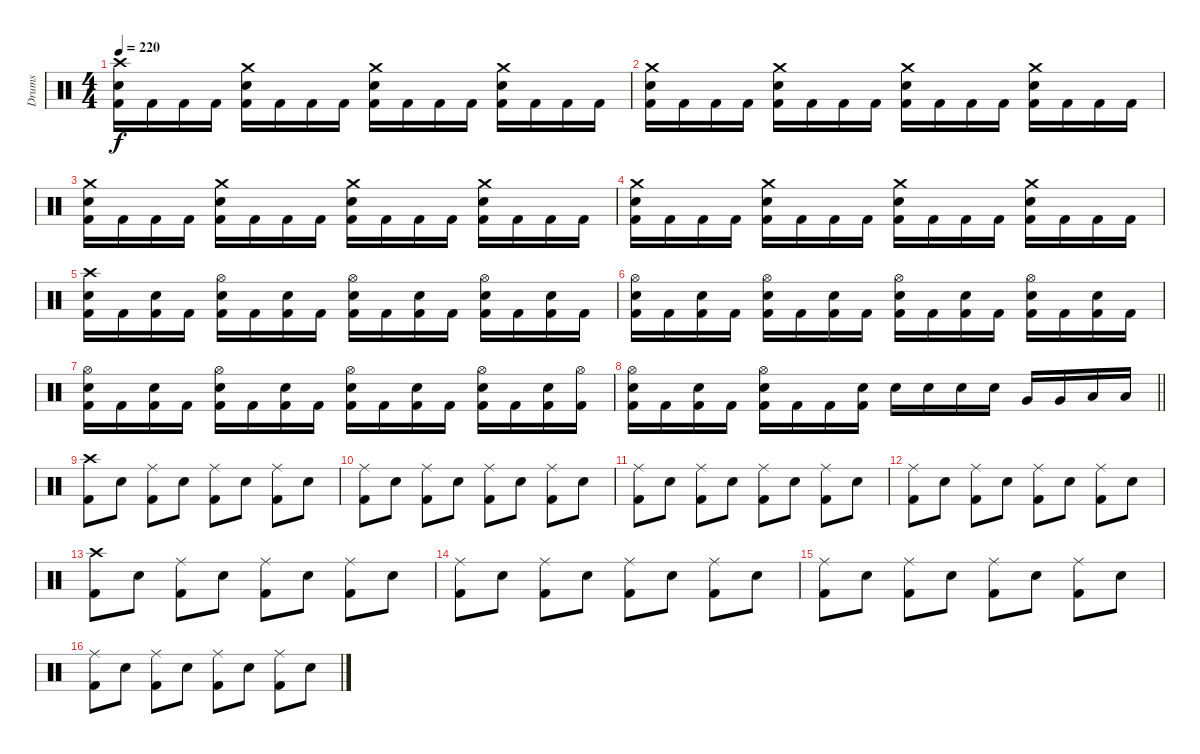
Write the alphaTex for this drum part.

\track ("Drums" "Drums") {instrument percussion}
\staff {score}
\articulation defaults
\ts (4 4)
\tempo 220
\clef neutral
\ks c
("Crash high (hit)" "Electric Snare (hit)" "Kick (hit) 2").16{dy f} "Kick (hit) 2".16 "Kick (hit) 2".16 "Kick (hit) 2".16 ("Crash medium (hit)" "Electric Snare (hit)" "Kick (hit) 2").16 "Kick (hit) 2".16 "Kick (hit) 2".16 "Kick (hit) 2".16 ("Crash medium (hit)" "Electric Snare (hit)" "Kick (hit) 2").16 "Kick (hit) 2".16 "Kick (hit) 2".16 "Kick (hit) 2".16 ("Crash medium (hit)" "Electric Snare (hit)" "Kick (hit) 2").16 "Kick (hit) 2".16 "Kick (hit) 2".16 "Kick (hit) 2".16 |
("Crash medium (hit)" "Electric Snare (hit)" "Kick (hit) 2").16 "Kick (hit) 2".16 "Kick (hit) 2".16 "Kick (hit) 2".16 ("Crash medium (hit)" "Electric Snare (hit)" "Kick (hit) 2").16 "Kick (hit) 2".16 "Kick (hit) 2".16 "Kick (hit) 2".16 ("Crash medium (hit)" "Electric Snare (hit)" "Kick (hit) 2").16 "Kick (hit) 2".16 "Kick (hit) 2".16 "Kick (hit) 2".16 ("Crash medium (hit)" "Electric Snare (hit)" "Kick (hit) 2").16 "Kick (hit) 2".16 "Kick (hit) 2".16 "Kick (hit) 2".16 |
("Crash medium (hit)" "Electric Snare (hit)" "Kick (hit) 2").16 "Kick (hit) 2".16 "Kick (hit) 2".16 "Kick (hit) 2".16 ("Crash medium (hit)" "Electric Snare (hit)" "Kick (hit) 2").16 "Kick (hit) 2".16 "Kick (hit) 2".16 "Kick (hit) 2".16 ("Crash medium (hit)" "Electric Snare (hit)" "Kick (hit) 2").16 "Kick (hit) 2".16 "Kick (hit) 2".16 "Kick (hit) 2".16 ("Crash medium (hit)" "Electric Snare (hit)" "Kick (hit) 2").16 "Kick (hit) 2".16 "Kick (hit) 2".16 "Kick (hit) 2".16 |
("Crash medium (hit)" "Electric Snare (hit)" "Kick (hit) 2").16 "Kick (hit) 2".16 "Kick (hit) 2".16 "Kick (hit) 2".16 ("Crash medium (hit)" "Electric Snare (hit)" "Kick (hit) 2").16 "Kick (hit) 2".16 "Kick (hit) 2".16 "Kick (hit) 2".16 ("Crash medium (hit)" "Electric Snare (hit)" "Kick (hit) 2").16 "Kick (hit) 2".16 "Kick (hit) 2".16 "Kick (hit) 2".16 ("Crash medium (hit)" "Electric Snare (hit)" "Kick (hit) 2").16 "Kick (hit) 2".16 "Kick (hit) 2".16 "Kick (hit) 2".16 |
("Crash high (hit)" "Electric Snare (hit)" "Kick (hit) 2").16 "Kick (hit) 2".16 ("Electric Snare (hit)" "Kick (hit) 2").16 "Kick (hit) 2".16 ("Hi-Hat (open)" "Electric Snare (hit)" "Kick (hit) 2").16 "Kick (hit) 2".16 ("Electric Snare (hit)" "Kick (hit) 2").16 "Kick (hit) 2".16 ("Hi-Hat (open)" "Electric Snare (hit)" "Kick (hit) 2").16 "Kick (hit) 2".16 ("Electric Snare (hit)" "Kick (hit) 2").16 "Kick (hit) 2".16 ("Hi-Hat (open)" "Electric Snare (hit)" "Kick (hit) 2").16 "Kick (hit) 2".16 ("Electric Snare (hit)" "Kick (hit) 2").16 "Kick (hit) 2".16 |
("Hi-Hat (open)" "Electric Snare (hit)" "Kick (hit) 2").16 "Kick (hit) 2".16 ("Electric Snare (hit)" "Kick (hit) 2").16 "Kick (hit) 2".16 ("Hi-Hat (open)" "Electric Snare (hit)" "Kick (hit) 2").16 "Kick (hit) 2".16 ("Electric Snare (hit)" "Kick (hit) 2").16 "Kick (hit) 2".16 ("Hi-Hat (open)" "Electric Snare (hit)" "Kick (hit) 2").16 "Kick (hit) 2".16 ("Electric Snare (hit)" "Kick (hit) 2").16 "Kick (hit) 2".16 ("Hi-Hat (open)" "Electric Snare (hit)" "Kick (hit) 2").16 "Kick (hit) 2".16 ("Electric Snare (hit)" "Kick (hit) 2").16 "Kick (hit) 2".16 |
("Hi-Hat (open)" "Electric Snare (hit)" "Kick (hit) 2").16 "Kick (hit) 2".16 ("Electric Snare (hit)" "Kick (hit) 2").16 "Kick (hit) 2".16 ("Hi-Hat (open)" "Electric Snare (hit)" "Kick (hit) 2").16 "Kick (hit) 2".16 ("Electric Snare (hit)" "Kick (hit) 2").16 "Kick (hit) 2".16 ("Hi-Hat (open)" "Electric Snare (hit)" "Kick (hit) 2").16 "Kick (hit) 2".16 ("Electric Snare (hit)" "Kick (hit) 2").16 "Kick (hit) 2".16 ("Hi-Hat (open)" "Electric Snare (hit)" "Kick (hit) 2").16 "Kick (hit) 2".16 ("Electric Snare (hit)" "Kick (hit) 2").16 ("Hi-Hat (open)" "Kick (hit) 2").16 |
\barLineRight lightlight
("Hi-Hat (open)" "Electric Snare (hit)" "Kick (hit) 2").16 "Kick (hit) 2".16 ("Electric Snare (hit)" "Kick (hit) 2").16 "Kick (hit) 2".16 ("Hi-Hat (open)" "Electric Snare (hit)" "Kick (hit) 2").16 "Kick (hit) 2".16 "Kick (hit) 2".16 ("Electric Snare (hit)" "Kick (hit) 2").16 "Electric Snare (hit)".16 "Electric Snare (hit)".16 "Electric Snare (hit)".16 "Electric Snare (hit)".16 "Very Low Tom (hit)".16 "Very Low Tom (hit)".16 "Low Floor Tom (hit)".16 "Low Floor Tom (hit)".16 |
("Crash high (hit)" "Kick (hit) 2").8 "Electric Snare (hit)".8 ("Ride (middle)" "Kick (hit) 2").8 "Electric Snare (hit)".8 ("Ride (middle)" "Kick (hit) 2").8 "Electric Snare (hit)".8 ("Ride (middle)" "Kick (hit) 2").8 "Electric Snare (hit)".8 |
("Ride (middle)" "Kick (hit) 2").8 "Electric Snare (hit)".8 ("Ride (middle)" "Kick (hit) 2").8 "Electric Snare (hit)".8 ("Ride (middle)" "Kick (hit) 2").8 "Electric Snare (hit)".8 ("Ride (middle)" "Kick (hit) 2").8 "Electric Snare (hit)".8 |
("Ride (middle)" "Kick (hit) 2").8 "Electric Snare (hit)".8 ("Ride (middle)" "Kick (hit) 2").8 "Electric Snare (hit)".8 ("Ride (middle)" "Kick (hit) 2").8 "Electric Snare (hit)".8 ("Ride (middle)" "Kick (hit) 2").8 "Electric Snare (hit)".8 |
("Ride (middle)" "Kick (hit) 2").8 "Electric Snare (hit)".8 ("Ride (middle)" "Kick (hit) 2").8 "Electric Snare (hit)".8 ("Ride (middle)" "Kick (hit) 2").8 "Electric Snare (hit)".8 ("Ride (middle)" "Kick (hit) 2").8 "Electric Snare (hit)".8 |
("Crash high (hit)" "Kick (hit) 2").8 "Electric Snare (hit)".8 ("Ride (middle)" "Kick (hit) 2").8 "Electric Snare (hit)".8 ("Ride (middle)" "Kick (hit) 2").8 "Electric Snare (hit)".8 ("Ride (middle)" "Kick (hit) 2").8 "Electric Snare (hit)".8 |
("Ride (middle)" "Kick (hit) 2").8 "Electric Snare (hit)".8 ("Ride (middle)" "Kick (hit) 2").8 "Electric Snare (hit)".8 ("Ride (middle)" "Kick (hit) 2").8 "Electric Snare (hit)".8 ("Ride (middle)" "Kick (hit) 2").8 "Electric Snare (hit)".8 |
("Ride (middle)" "Kick (hit) 2").8 "Electric Snare (hit)".8 ("Ride (middle)" "Kick (hit) 2").8 "Electric Snare (hit)".8 ("Ride (middle)" "Kick (hit) 2").8 "Electric Snare (hit)".8 ("Ride (middle)" "Kick (hit) 2").8 "Electric Snare (hit)".8 |
("Ride (middle)" "Kick (hit) 2").8 "Electric Snare (hit)".8 ("Ride (middle)" "Kick (hit) 2").8 "Electric Snare (hit)".8 ("Ride (middle)" "Kick (hit) 2").8 "Electric Snare (hit)".8 ("Ride (middle)" "Kick (hit) 2").8 "Electric Snare (hit)".8
